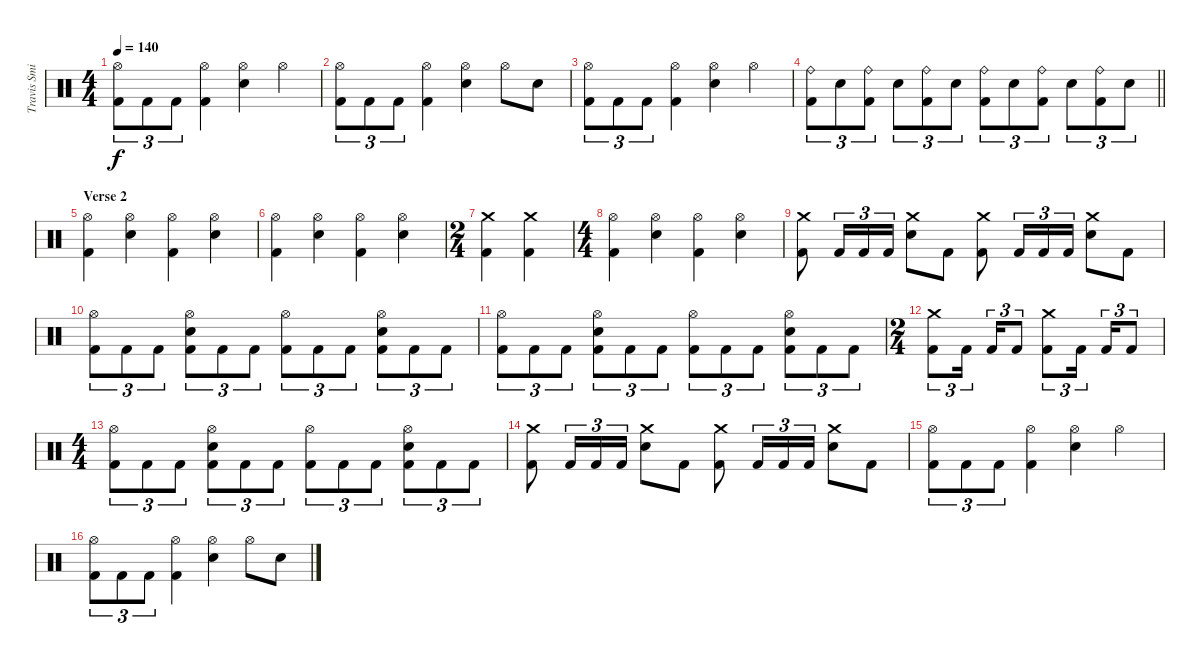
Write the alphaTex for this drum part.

\track ("Travis Smith" "Travis Smi") {instrument percussion}
\staff {score}
\articulation defaults
\ts (4 4)
\tempo 140
\clef neutral
\ks c
("Hi-Hat (open)" "Kick (hit) 2").8{tu (3 2) dy f} "Kick (hit) 2".8{tu (3 2)} "Kick (hit) 2".8{tu (3 2)} ("Hi-Hat (open)" "Kick (hit) 2").4 ("Hi-Hat (open)" "Electric Snare (hit)").4 "Hi-Hat (open)".4 |
("Hi-Hat (open)" "Kick (hit) 2").8{tu (3 2)} "Kick (hit) 2".8{tu (3 2)} "Kick (hit) 2".8{tu (3 2)} ("Hi-Hat (open)" "Kick (hit) 2").4 ("Hi-Hat (open)" "Electric Snare (hit)").4 "Hi-Hat (open)".8 "Electric Snare (hit)".8 |
("Hi-Hat (open)" "Kick (hit) 2").8{tu (3 2)} "Kick (hit) 2".8{tu (3 2)} "Kick (hit) 2".8{tu (3 2)} ("Hi-Hat (open)" "Kick (hit) 2").4 ("Hi-Hat (open)" "Electric Snare (hit)").4 "Hi-Hat (open)".4 |
\barLineRight lightlight
("Ride (bell)" "Kick (hit) 2").8{tu (3 2)} "Electric Snare (hit)".8{tu (3 2)} ("Ride (bell)" "Kick (hit) 2").8{tu (3 2)} "Electric Snare (hit)".8{tu (3 2)} ("Ride (bell)" "Kick (hit) 2").8{tu (3 2)} "Electric Snare (hit)".8{tu (3 2)} ("Ride (bell)" "Kick (hit) 2").8{tu (3 2)} "Electric Snare (hit)".8{tu (3 2)} ("Ride (bell)" "Kick (hit) 2").8{tu (3 2)} "Electric Snare (hit)".8{tu (3 2)} ("Ride (bell)" "Kick (hit) 2").8{tu (3 2)} "Electric Snare (hit)".8{tu (3 2)} |
\section ("" "Verse 2 ")
("Hi-Hat (open)" "Kick (hit) 2").4 ("Hi-Hat (open)" "Electric Snare (hit)").4 ("Hi-Hat (open)" "Kick (hit) 2").4 ("Hi-Hat (open)" "Electric Snare (hit)").4 |
("Hi-Hat (open)" "Kick (hit) 2").4 ("Hi-Hat (open)" "Electric Snare (hit)").4 ("Hi-Hat (open)" "Kick (hit) 2").4 ("Hi-Hat (open)" "Electric Snare (hit)").4 |
\ts (2 4)
("Crash medium (hit)" "Kick (hit) 2").4 ("Crash medium (hit)" "Kick (hit) 2").4 |
\ts (4 4)
("Hi-Hat (open)" "Kick (hit) 2").4 ("Hi-Hat (open)" "Electric Snare (hit)").4 ("Hi-Hat (open)" "Kick (hit) 2").4 ("Hi-Hat (open)" "Electric Snare (hit)").4 |
("Crash medium (hit)" "Kick (hit) 2").8 "Kick (hit) 2".16{tu (3 2)} "Kick (hit) 2".16{tu (3 2)} "Kick (hit) 2".16{tu (3 2)} ("Crash medium (hit)" "Electric Snare (hit)").8 "Kick (hit) 2".8 ("Crash medium (hit)" "Kick (hit) 2").8 "Kick (hit) 2".16{tu (3 2)} "Kick (hit) 2".16{tu (3 2)} "Kick (hit) 2".16{tu (3 2)} ("Crash medium (hit)" "Electric Snare (hit)").8 "Kick (hit) 2".8 |
("Hi-Hat (open)" "Kick (hit) 2").8{tu (3 2)} "Kick (hit) 2".8{tu (3 2)} "Kick (hit) 2".8{tu (3 2)} ("Hi-Hat (open)" "Electric Snare (hit)" "Kick (hit) 2").8{tu (3 2)} "Kick (hit) 2".8{tu (3 2)} "Kick (hit) 2".8{tu (3 2)} ("Hi-Hat (open)" "Kick (hit) 2").8{tu (3 2)} "Kick (hit) 2".8{tu (3 2)} "Kick (hit) 2".8{tu (3 2)} ("Hi-Hat (open)" "Electric Snare (hit)" "Kick (hit) 2").8{tu (3 2)} "Kick (hit) 2".8{tu (3 2)} "Kick (hit) 2".8{tu (3 2)} |
("Hi-Hat (open)" "Kick (hit) 2").8{tu (3 2)} "Kick (hit) 2".8{tu (3 2)} "Kick (hit) 2".8{tu (3 2)} ("Hi-Hat (open)" "Electric Snare (hit)" "Kick (hit) 2").8{tu (3 2)} "Kick (hit) 2".8{tu (3 2)} "Kick (hit) 2".8{tu (3 2)} ("Hi-Hat (open)" "Kick (hit) 2").8{tu (3 2)} "Kick (hit) 2".8{tu (3 2)} "Kick (hit) 2".8{tu (3 2)} ("Hi-Hat (open)" "Electric Snare (hit)" "Kick (hit) 2").8{tu (3 2)} "Kick (hit) 2".8{tu (3 2)} "Kick (hit) 2".8{tu (3 2)} |
\ts (2 4)
("Crash medium (hit)" "Kick (hit) 2").8{tu (3 2)} "Kick (hit) 2".16{tu (3 2) beam splitsecondary} "Kick (hit) 2".16{tu (3 2)} "Kick (hit) 2".8{tu (3 2)} ("Crash medium (hit)" "Kick (hit) 2").8{tu (3 2)} "Kick (hit) 2".16{tu (3 2) beam splitsecondary} "Kick (hit) 2".16{tu (3 2)} "Kick (hit) 2".8{tu (3 2)} |
\ts (4 4)
("Hi-Hat (open)" "Kick (hit) 2").8{tu (3 2)} "Kick (hit) 2".8{tu (3 2)} "Kick (hit) 2".8{tu (3 2)} ("Hi-Hat (open)" "Electric Snare (hit)" "Kick (hit) 2").8{tu (3 2)} "Kick (hit) 2".8{tu (3 2)} "Kick (hit) 2".8{tu (3 2)} ("Hi-Hat (open)" "Kick (hit) 2").8{tu (3 2)} "Kick (hit) 2".8{tu (3 2)} "Kick (hit) 2".8{tu (3 2)} ("Hi-Hat (open)" "Electric Snare (hit)" "Kick (hit) 2").8{tu (3 2)} "Kick (hit) 2".8{tu (3 2)} "Kick (hit) 2".8{tu (3 2)} |
("Crash medium (hit)" "Kick (hit) 2").8 "Kick (hit) 2".16{tu (3 2)} "Kick (hit) 2".16{tu (3 2)} "Kick (hit) 2".16{tu (3 2)} ("Crash medium (hit)" "Electric Snare (hit)").8 "Kick (hit) 2".8 ("Crash medium (hit)" "Kick (hit) 2").8 "Kick (hit) 2".16{tu (3 2)} "Kick (hit) 2".16{tu (3 2)} "Kick (hit) 2".16{tu (3 2)} ("Crash medium (hit)" "Electric Snare (hit)").8 "Kick (hit) 2".8 |
("Hi-Hat (open)" "Kick (hit) 2").8{tu (3 2)} "Kick (hit) 2".8{tu (3 2)} "Kick (hit) 2".8{tu (3 2)} ("Hi-Hat (open)" "Kick (hit) 2").4 ("Hi-Hat (open)" "Electric Snare (hit)").4 "Hi-Hat (open)".4 |
("Hi-Hat (open)" "Kick (hit) 2").8{tu (3 2)} "Kick (hit) 2".8{tu (3 2)} "Kick (hit) 2".8{tu (3 2)} ("Hi-Hat (open)" "Kick (hit) 2").4 ("Hi-Hat (open)" "Electric Snare (hit)").4 "Hi-Hat (open)".8 "Electric Snare (hit)".8
